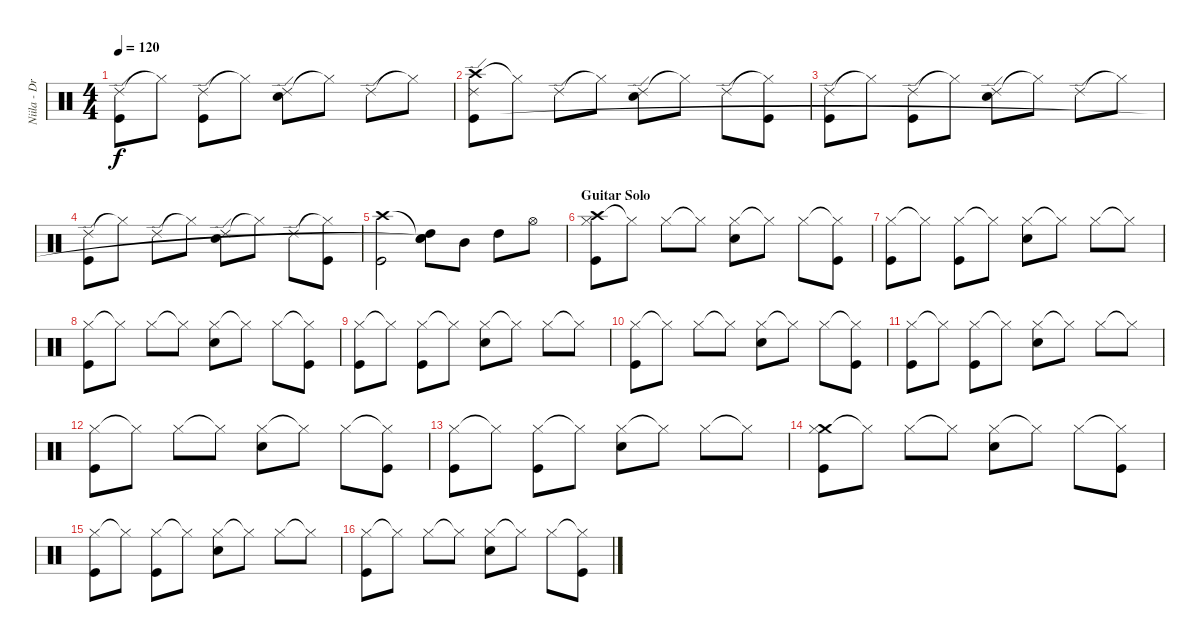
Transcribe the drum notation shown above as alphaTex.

\track ("Niila - Drums" "Niila - Dr") {instrument percussion}
\staff {score}
\articulation defaults
\ts (4 4)
\tempo 120
\clef neutral
\ks c
("Ride (edge) 2" "Kick (hit)").8{dy f} "Hi-Hat (closed)"{t}.8 ("Ride (edge) 2" "Kick (hit)").8 "Hi-Hat (closed)"{t}.8 ("Ride (edge) 2" "Snare (hit) 2").8 "Hi-Hat (closed)"{t}.8 "Ride (edge) 2".8 "Hi-Hat (closed)"{t}.8 |
("Crash high (hit)" "Ride (edge) 2" "Kick (hit)").8 "Hi-Hat (closed)"{t}.8 "Ride (edge) 2".8 "Hi-Hat (closed)"{t}.8 ("Ride (edge) 2" "Snare (hit) 2").8 "Hi-Hat (closed)"{t}.8 "Ride (edge) 2".8 ("Hi-Hat (closed)"{t} "Kick (hit)").8 |
("Ride (edge) 2" "Kick (hit)").8 "Hi-Hat (closed)"{t}.8 ("Ride (edge) 2" "Kick (hit)").8 "Hi-Hat (closed)"{t}.8 ("Ride (edge) 2" "Snare (hit) 2").8 "Hi-Hat (closed)"{t}.8 "Ride (edge) 2".8 "Hi-Hat (closed)"{t}.8 |
("Ride (edge) 2" "Kick (hit)").8 "Hi-Hat (closed)"{t}.8 "Ride (edge) 2".8 "Hi-Hat (closed)"{t}.8 ("Ride (edge) 2" "Snare (hit) 2").8 "Hi-Hat (closed)"{t}.8 "Ride (edge) 2".8 ("Hi-Hat (closed)"{t} "Kick (hit)").8 |
("Crash high (hit)" "Kick (hit)").2 ("Snare (hit)"{t} "High Tom (hit)" "Snare (hit)"{t}).8 "Mid Tom (hit)".8 "High Tom (hit)".8 "Hi-Hat (open)".8 |
\section ("" "Guitar Solo")
("Crash high (hit)" "Hi-Hat (closed)" "Kick (hit)").8 "Hi-Hat (closed)"{t}.8 "Hi-Hat (closed)".8 "Hi-Hat (closed)"{t}.8 ("Hi-Hat (closed)" "Snare (hit) 2").8 "Hi-Hat (closed)"{t}.8 "Hi-Hat (closed)".8 ("Hi-Hat (closed)"{t} "Kick (hit)").8 |
("Hi-Hat (closed)" "Kick (hit)").8 "Hi-Hat (closed)"{t}.8 ("Hi-Hat (closed)" "Kick (hit)").8 "Hi-Hat (closed)"{t}.8 ("Hi-Hat (closed)" "Snare (hit) 2").8 "Hi-Hat (closed)"{t}.8 "Hi-Hat (closed)".8 "Hi-Hat (closed)"{t}.8 |
("Hi-Hat (closed)" "Kick (hit)").8 "Hi-Hat (closed)"{t}.8 "Hi-Hat (closed)".8 "Hi-Hat (closed)"{t}.8 ("Hi-Hat (closed)" "Snare (hit) 2").8 "Hi-Hat (closed)"{t}.8 "Hi-Hat (closed)".8 ("Hi-Hat (closed)"{t} "Kick (hit)").8 |
("Hi-Hat (closed)" "Kick (hit)").8 "Hi-Hat (closed)"{t}.8 ("Hi-Hat (closed)" "Kick (hit)").8 "Hi-Hat (closed)"{t}.8 ("Hi-Hat (closed)" "Snare (hit) 2").8 "Hi-Hat (closed)"{t}.8 "Hi-Hat (closed)".8 "Hi-Hat (closed)"{t}.8 |
("Hi-Hat (closed)" "Kick (hit)").8 "Hi-Hat (closed)"{t}.8 "Hi-Hat (closed)".8 "Hi-Hat (closed)"{t}.8 ("Hi-Hat (closed)" "Snare (hit) 2").8 "Hi-Hat (closed)"{t}.8 "Hi-Hat (closed)".8 ("Hi-Hat (closed)"{t} "Kick (hit)").8 |
("Hi-Hat (closed)" "Kick (hit)").8 "Hi-Hat (closed)"{t}.8 ("Hi-Hat (closed)" "Kick (hit)").8 "Hi-Hat (closed)"{t}.8 ("Hi-Hat (closed)" "Snare (hit) 2").8 "Hi-Hat (closed)"{t}.8 "Hi-Hat (closed)".8 "Hi-Hat (closed)"{t}.8 |
("Hi-Hat (closed)" "Kick (hit)").8 "Hi-Hat (closed)"{t}.8 "Hi-Hat (closed)".8 "Hi-Hat (closed)"{t}.8 ("Hi-Hat (closed)" "Snare (hit) 2").8 "Hi-Hat (closed)"{t}.8 "Hi-Hat (closed)".8 ("Hi-Hat (closed)"{t} "Kick (hit)").8 |
("Hi-Hat (closed)" "Kick (hit)").8 "Hi-Hat (closed)"{t}.8 ("Hi-Hat (closed)" "Kick (hit)").8 "Hi-Hat (closed)"{t}.8 ("Hi-Hat (closed)" "Snare (hit) 2").8 "Hi-Hat (closed)"{t}.8 "Hi-Hat (closed)".8 "Hi-Hat (closed)"{t}.8 |
("Crash medium (hit)" "Hi-Hat (closed)" "Kick (hit)").8 "Hi-Hat (closed)"{t}.8 "Hi-Hat (closed)".8 "Hi-Hat (closed)"{t}.8 ("Hi-Hat (closed)" "Snare (hit) 2").8 "Hi-Hat (closed)"{t}.8 "Hi-Hat (closed)".8 ("Hi-Hat (closed)"{t} "Kick (hit)").8 |
("Hi-Hat (closed)" "Kick (hit)").8 "Hi-Hat (closed)"{t}.8 ("Hi-Hat (closed)" "Kick (hit)").8 "Hi-Hat (closed)"{t}.8 ("Hi-Hat (closed)" "Snare (hit) 2").8 "Hi-Hat (closed)"{t}.8 "Hi-Hat (closed)".8 "Hi-Hat (closed)"{t}.8 |
("Hi-Hat (closed)" "Kick (hit)").8 "Hi-Hat (closed)"{t}.8 "Hi-Hat (closed)".8 "Hi-Hat (closed)"{t}.8 ("Hi-Hat (closed)" "Snare (hit) 2").8 "Hi-Hat (closed)"{t}.8 "Hi-Hat (closed)".8 ("Hi-Hat (closed)"{t} "Kick (hit)").8
